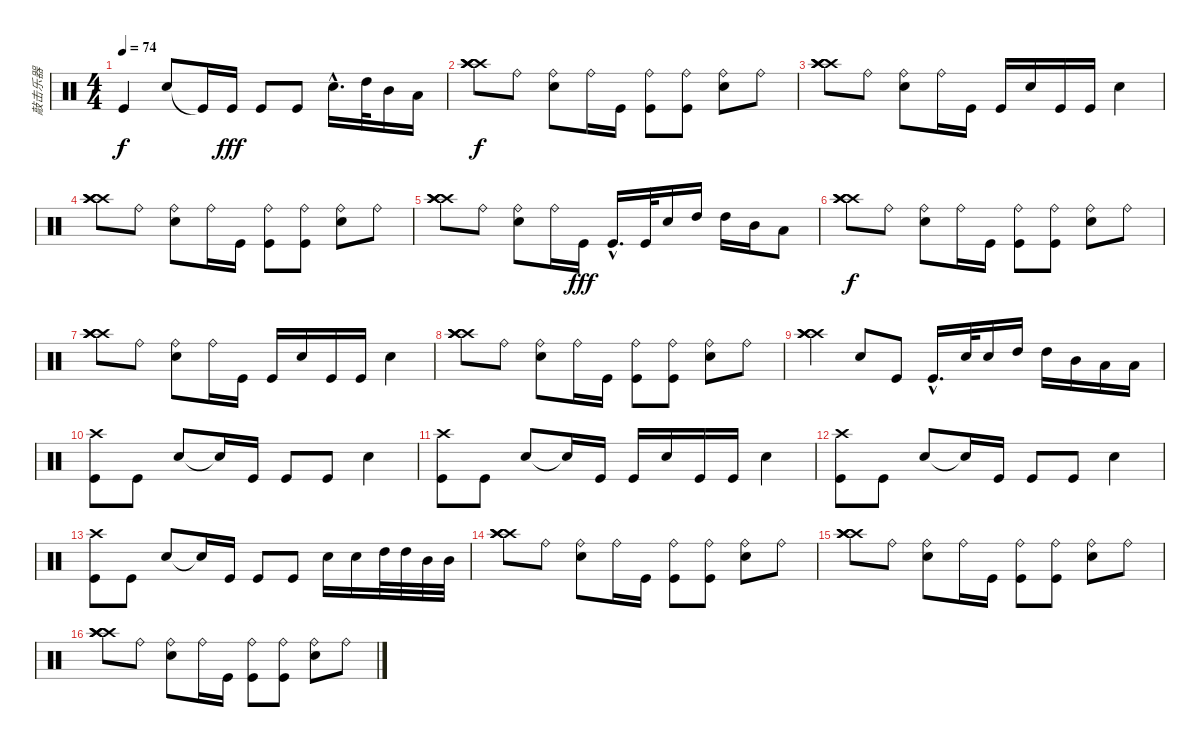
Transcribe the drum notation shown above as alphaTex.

\track ("敲击乐器" "敲击乐器") {instrument percussion}
\staff {score}
\articulation defaults
\ts (4 4)
\tempo 74
\clef neutral
\ks c "Kick (hit)".4{dy f} "Snare (hit) 2".8 "Kick (hit)"{t}.16 "Kick (hit)".16{dy fff} "Kick (hit)".8 "Kick (hit)".8 "Snare (hit) 2"{hac}.16{d} "High Tom (hit)".32 "Mid Tom (hit)".16 "Low Tom (hit)".16
|
("Crash high (hit)" "Crash high (hit)" "Crash high (hit)" "Crash high (hit)").8{dy f} "Ride (bell)".8 ("Ride (bell)" "Snare (hit) 2").8 "Ride (bell)".16 "Kick (hit)".16 ("Ride (bell)" "Kick (hit)").8 ("Ride (bell)" "Kick (hit)").8 ("Ride (bell)" "Snare (hit) 2").8 "Ride (bell)".8 |
("Crash high (hit)" "Crash high (hit)" "Crash high (hit)" "Crash high (hit)").8 "Ride (bell)".8 ("Ride (bell)" "Snare (hit) 2").8 "Ride (bell)".16 "Kick (hit)".16 "Kick (hit)".16 "Snare (hit) 2".16 "Kick (hit)".16 "Kick (hit)".16 "Snare (hit) 2".4 |
("Crash high (hit)" "Crash high (hit)" "Crash high (hit)" "Crash high (hit)").8 "Ride (bell)".8 ("Ride (bell)" "Snare (hit) 2").8 "Ride (bell)".16 "Kick (hit)".16 ("Ride (bell)" "Kick (hit)").8 ("Ride (bell)" "Kick (hit)").8 ("Ride (bell)" "Snare (hit) 2").8 "Ride (bell)".8 |
("Crash high (hit)" "Crash high (hit)" "Crash high (hit)" "Crash high (hit)").8 "Ride (bell)".8 ("Ride (bell)" "Snare (hit) 2").8 "Ride (bell)".16 "Kick (hit)".16{dy fff} "Kick (hit)"{hac}.16{d} "Kick (hit)".32 "Snare (hit) 2".16 "High Tom (hit)".16 "High Tom (hit)".16 "Mid Tom (hit)".16 "Low Tom (hit)".8 |
("Crash high (hit)" "Crash high (hit)" "Crash high (hit)" "Crash high (hit)").8{dy f} "Ride (bell)".8 ("Ride (bell)" "Snare (hit) 2").8 "Ride (bell)".16 "Kick (hit)".16 ("Ride (bell)" "Kick (hit)").8 ("Ride (bell)" "Kick (hit)").8 ("Ride (bell)" "Snare (hit) 2").8 "Ride (bell)".8 |
("Crash high (hit)" "Crash high (hit)" "Crash high (hit)" "Crash high (hit)").8 "Ride (bell)".8 ("Ride (bell)" "Snare (hit) 2").8 "Ride (bell)".16 "Kick (hit)".16 "Kick (hit)".16 "Snare (hit) 2".16 "Kick (hit)".16 "Kick (hit)".16 "Snare (hit) 2".4 |
("Crash high (hit)" "Crash high (hit)" "Crash high (hit)" "Crash high (hit)").8 "Ride (bell)".8 ("Ride (bell)" "Snare (hit) 2").8 "Ride (bell)".16 "Kick (hit)".16 ("Ride (bell)" "Kick (hit)").8 ("Ride (bell)" "Kick (hit)").8 ("Ride (bell)" "Snare (hit) 2").8 "Ride (bell)".8 |
("Crash high (hit)" "Crash high (hit)" "Crash high (hit)" "Crash high (hit)").4 "Snare (hit) 2".8 "Kick (hit)".8 "Kick (hit)"{hac}.16{d} "Snare (hit) 2".32 "Snare (hit) 2".16 "High Tom (hit)".16 "High Tom (hit)".16 "Mid Tom (hit)".16 "Low Tom (hit)".16 "Low Tom (hit)".16 |
("Crash high (hit)" "Kick (hit)").8 "Kick (hit)".8 "Snare (hit) 2".8 "Snare (hit)"{t}.16 "Kick (hit)".16 "Kick (hit)".8 "Kick (hit)".8 "Snare (hit) 2".4 |
("Crash high (hit)" "Kick (hit)").8 "Kick (hit)".8 "Snare (hit) 2".8 "Snare (hit)"{t}.16 "Kick (hit)".16 "Kick (hit)".16 "Snare (hit) 2".16 "Kick (hit)".16 "Kick (hit)".16 "Snare (hit) 2".4 |
("Crash high (hit)" "Kick (hit)").8 "Kick (hit)".8 "Snare (hit) 2".8 "Snare (hit)"{t}.16 "Kick (hit)".16 "Kick (hit)".8 "Kick (hit)".8 "Snare (hit) 2".4 |
("Crash high (hit)" "Kick (hit)").8 "Kick (hit)".8 "Snare (hit) 2".8 "Snare (hit)"{t}.16 "Kick (hit)".16 "Kick (hit)".8 "Kick (hit)".8 "Snare (hit) 2".16 "Snare (hit) 2".16 "High Tom (hit)".32 "High Tom (hit)".32 "Mid Tom (hit)".32 "Mid Tom (hit)".32 |
("Crash high (hit)" "Crash high (hit)" "Crash high (hit)" "Crash high (hit)").8 "Ride (bell)".8 ("Ride (bell)" "Snare (hit) 2").8 "Ride (bell)".16 "Kick (hit)".16 ("Ride (bell)" "Kick (hit)").8 ("Ride (bell)" "Kick (hit)").8 ("Ride (bell)" "Snare (hit) 2").8 "Ride (bell)".8 |
("Crash high (hit)" "Crash high (hit)" "Crash high (hit)" "Crash high (hit)").8 "Ride (bell)".8 ("Ride (bell)" "Snare (hit) 2").8 "Ride (bell)".16 "Kick (hit)".16 ("Ride (bell)" "Kick (hit)").8 ("Ride (bell)" "Kick (hit)").8 ("Ride (bell)" "Snare (hit) 2").8 "Ride (bell)".8 |
("Crash high (hit)" "Crash high (hit)" "Crash high (hit)" "Crash high (hit)").8 "Ride (bell)".8 ("Ride (bell)" "Snare (hit) 2").8 "Ride (bell)".16 "Kick (hit)".16 ("Ride (bell)" "Kick (hit)").8 ("Ride (bell)" "Kick (hit)").8 ("Ride (bell)" "Snare (hit) 2").8 "Ride (bell)".8
